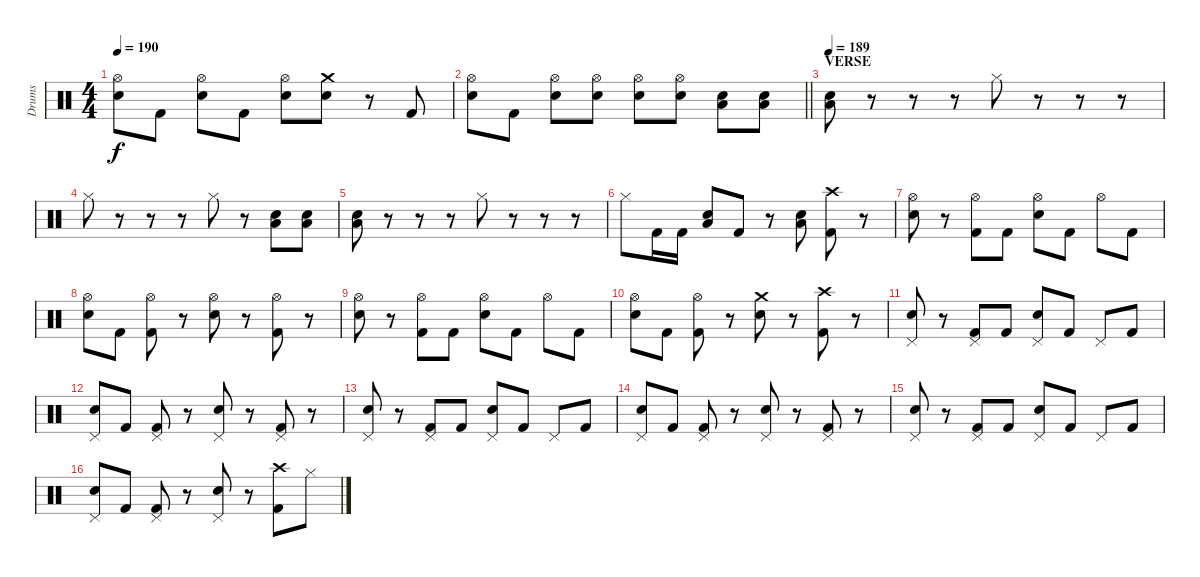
\track ("Drums" "Drums") {instrument percussion}
\staff {score}
\articulation defaults
\ts (4 4)
\tempo 190
\clef neutral
\ks c
("Snare (hit) 2" "Hi-Hat (open)").8{dy f} "Kick (hit) 2".8 ("Snare (hit) 2" "Hi-Hat (open)").8 "Kick (hit) 2".8 ("Snare (hit) 2" "Hi-Hat (open)").8 ("Crash medium (hit)" "Snare (hit) 2").8 r.8 "Kick (hit) 2".8 |
\barLineRight lightlight
("Snare (hit) 2" "Hi-Hat (open)").8 "Kick (hit) 2".8 ("Snare (hit) 2" "Hi-Hat (open)").8 ("Snare (hit) 2" "Hi-Hat (open)").8 ("Snare (hit) 2" "Hi-Hat (open)").8 ("Snare (hit) 2" "Hi-Hat (open)").8 ("Snare (hit) 2" "Low Floor Tom (hit)").8 ("Snare (hit) 2" "Low Floor Tom (hit)").8 |
\section ("" "VERSE")
\tempo 189
("Snare (hit) 2" "Low Floor Tom (hit)").8 r.8 r.8 r.8 "Hi-Hat (closed)".8 r.8 r.8 r.8 |
"Hi-Hat (closed)".8 r.8 r.8 r.8 "Hi-Hat (closed)".8 r.8 ("Snare (hit) 2" "Low Floor Tom (hit)").8 ("Snare (hit) 2" "Low Floor Tom (hit)").8 |
("Snare (hit) 2" "Low Floor Tom (hit)").8 r.8 r.8 r.8 "Hi-Hat (closed)".8 r.8 r.8 r.8 |
"Hi-Hat (closed)".8 "Kick (hit) 2".16 "Kick (hit) 2".16 ("Snare (hit) 2" "Low Floor Tom (hit)").8 "Kick (hit) 2".8 r.8 ("Low Floor Tom (hit)" "Snare (hit) 2").8 ("Kick (hit) 2" "Crash high (hit)").8 r.8 |
("Snare (hit) 2" "Hi-Hat (open)").8 r.8 ("Kick (hit) 2" "Hi-Hat (open)").8 "Kick (hit) 2".8 ("Snare (hit) 2" "Hi-Hat (open)").8 "Kick (hit) 2".8 "Hi-Hat (open)".8 "Kick (hit) 2".8 |
("Snare (hit) 2" "Hi-Hat (open)").8 "Kick (hit) 2".8 ("Kick (hit) 2" "Hi-Hat (open)").8 r.8 ("Snare (hit) 2" "Hi-Hat (open)").8 r.8 ("Kick (hit) 2" "Hi-Hat (open)").8 r.8 |
("Snare (hit) 2" "Hi-Hat (open)").8 r.8 ("Kick (hit) 2" "Hi-Hat (open)").8 "Kick (hit) 2".8 ("Snare (hit) 2" "Hi-Hat (open)").8 "Kick (hit) 2".8 "Hi-Hat (open)".8 "Kick (hit) 2".8 |
("Snare (hit) 2" "Hi-Hat (open)").8 "Kick (hit) 2".8 ("Kick (hit) 2" "Hi-Hat (open)").8 r.8 ("Snare (hit) 2" "Crash medium (hit)").8 r.8 ("Kick (hit) 2" "Crash high (hit)").8 r.8 |
("Snare (hit) 2" "Pedal Hi-Hat (hit)").8 r.8 ("Kick (hit) 2" "Pedal Hi-Hat (hit)").8 "Kick (hit) 2".8 ("Snare (hit) 2" "Pedal Hi-Hat (hit)").8 "Kick (hit) 2".8 "Pedal Hi-Hat (hit)".8 "Kick (hit) 2".8 |
("Snare (hit) 2" "Pedal Hi-Hat (hit)").8 "Kick (hit) 2".8 ("Kick (hit) 2" "Pedal Hi-Hat (hit)").8 r.8 ("Snare (hit) 2" "Pedal Hi-Hat (hit)").8 r.8 ("Kick (hit) 2" "Pedal Hi-Hat (hit)").8 r.8 |
("Snare (hit) 2" "Pedal Hi-Hat (hit)").8 r.8 ("Kick (hit) 2" "Pedal Hi-Hat (hit)").8 "Kick (hit) 2".8 ("Snare (hit) 2" "Pedal Hi-Hat (hit)").8 "Kick (hit) 2".8 "Pedal Hi-Hat (hit)".8 "Kick (hit) 2".8 |
("Snare (hit) 2" "Pedal Hi-Hat (hit)").8 "Kick (hit) 2".8 ("Kick (hit) 2" "Pedal Hi-Hat (hit)").8 r.8 ("Snare (hit) 2" "Pedal Hi-Hat (hit)").8 r.8 ("Kick (hit) 2" "Pedal Hi-Hat (hit)").8 r.8 |
("Snare (hit) 2" "Pedal Hi-Hat (hit)").8 r.8 ("Kick (hit) 2" "Pedal Hi-Hat (hit)").8 "Kick (hit) 2".8 ("Snare (hit) 2" "Pedal Hi-Hat (hit)").8 "Kick (hit) 2".8 "Pedal Hi-Hat (hit)".8 "Kick (hit) 2".8 |
("Snare (hit) 2" "Pedal Hi-Hat (hit)").8 "Kick (hit) 2".8 ("Kick (hit) 2" "Pedal Hi-Hat (hit)").8 r.8 ("Snare (hit) 2" "Pedal Hi-Hat (hit)").8 r.8 ("Kick (hit) 2" "Crash high (hit)").8 "Hi-Hat (closed)".8
